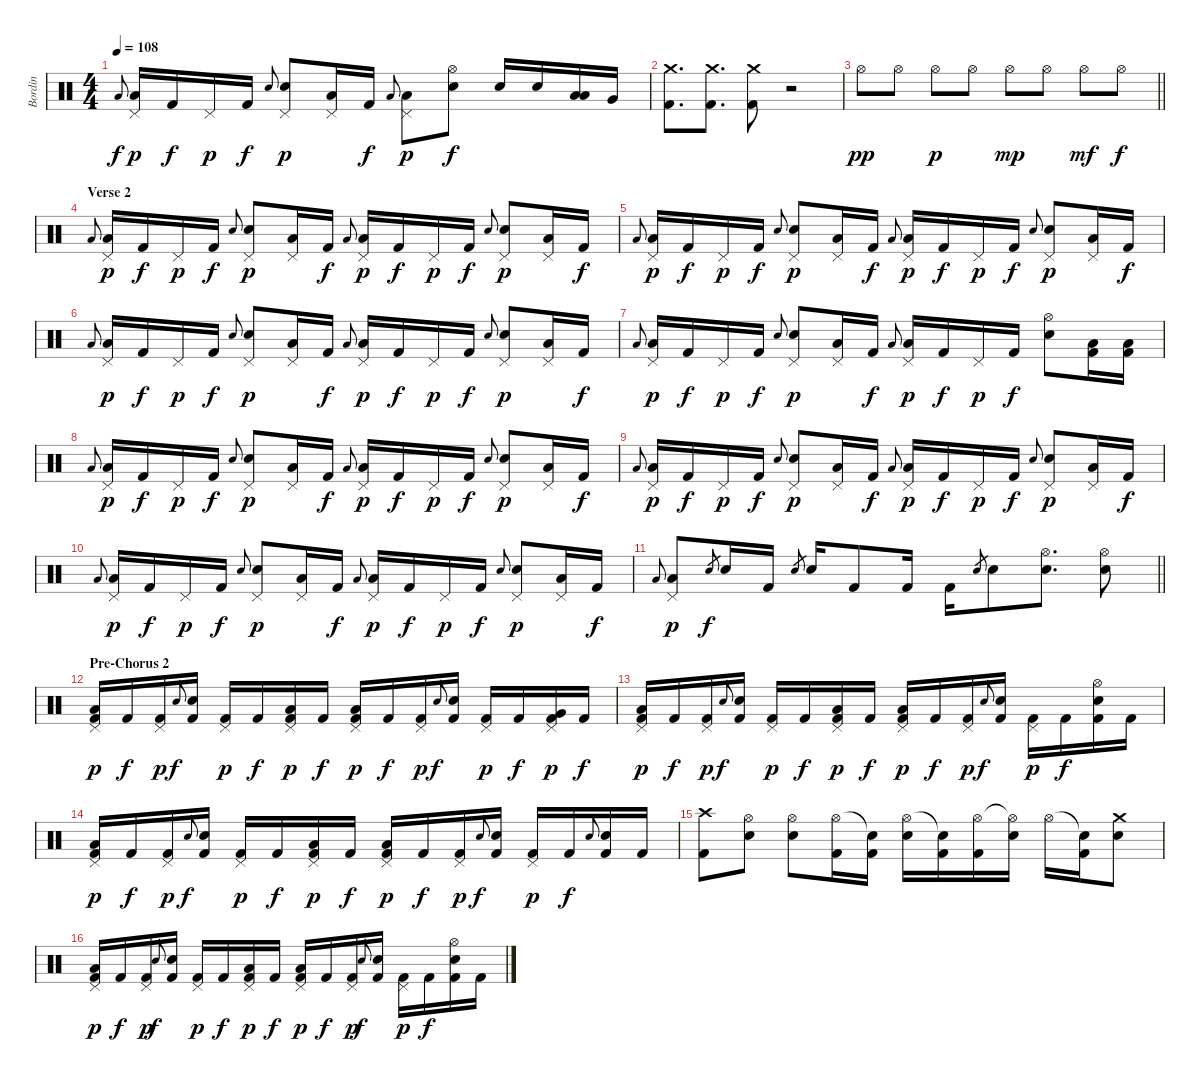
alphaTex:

\track ("Bordin" "Bordin") {instrument percussion}
\staff {score}
\articulation defaults
\ts (4 4)
\tempo 108
\clef neutral
\ks c "Low Tom (hit)".8{gr onbeat dy f}
("Low Tom (hit)" "Pedal Hi-Hat (hit)").16{dy p} "Kick (hit) 2".16{dy f} "Pedal Hi-Hat (hit)".16{dy p} "Kick (hit) 2".16{dy f} "Electric Snare (hit)".8{gr onbeat} ("Pedal Hi-Hat (hit)" "Electric Snare (hit)").8{dy p} ("Low Tom (hit)" "Pedal Hi-Hat (hit)").16 "Kick (hit) 2".16{dy f} "Low Tom (hit)".8{gr onbeat} ("Low Tom (hit)" "Pedal Hi-Hat (hit)").8{dy p} ("Hi-Hat (open)" "Electric Snare (hit)").8{dy f} "Electric Snare (hit)".16 "Electric Snare (hit)".16 ("Low Tom (hit)" "Low Tom (hit)").16 "Very Low Tom (hit)".16 |
("Crash medium (hit)" "Kick (hit) 2").8{d} ("Crash medium (hit)" "Kick (hit) 2").8{d} ("Crash medium (hit)" "Kick (hit) 2").8 r.2 |
\barLineRight lightlight "Hi-Hat (open)".8{dy pp} "Hi-Hat (open)".8 "Hi-Hat (open)".8{dy p} "Hi-Hat (open)".8 "Hi-Hat (open)".8{dy mp} "Hi-Hat (open)".8 "Hi-Hat (open)".8{dy mf} "Hi-Hat (open)".8{dy f}
|
\section ("" "Verse 2")
"Low Tom (hit)".8{gr onbeat} ("Low Tom (hit)" "Pedal Hi-Hat (hit)").16{dy p} "Kick (hit) 2".16{dy f} "Pedal Hi-Hat (hit)".16{dy p} "Kick (hit) 2".16{dy f} "Electric Snare (hit)".8{gr onbeat} ("Pedal Hi-Hat (hit)" "Electric Snare (hit)").8{dy p} ("Low Tom (hit)" "Pedal Hi-Hat (hit)").16 "Kick (hit) 2".16{dy f} "Low Tom (hit)".8{gr onbeat} ("Low Tom (hit)" "Pedal Hi-Hat (hit)").16{dy p} "Kick (hit) 2".16{dy f} "Pedal Hi-Hat (hit)".16{dy p} "Kick (hit) 2".16{dy f} "Electric Snare (hit)".8{gr onbeat} ("Pedal Hi-Hat (hit)" "Electric Snare (hit)").8{dy p} ("Low Tom (hit)" "Pedal Hi-Hat (hit)").16 "Kick (hit) 2".16{dy f} |
"Low Tom (hit)".8{gr onbeat} ("Low Tom (hit)" "Pedal Hi-Hat (hit)").16{dy p} "Kick (hit) 2".16{dy f} "Pedal Hi-Hat (hit)".16{dy p} "Kick (hit) 2".16{dy f} "Electric Snare (hit)".8{gr onbeat} ("Pedal Hi-Hat (hit)" "Electric Snare (hit)").8{dy p} ("Low Tom (hit)" "Pedal Hi-Hat (hit)").16 "Kick (hit) 2".16{dy f} "Low Tom (hit)".8{gr onbeat} ("Low Tom (hit)" "Pedal Hi-Hat (hit)").16{dy p} "Kick (hit) 2".16{dy f} "Pedal Hi-Hat (hit)".16{dy p} "Kick (hit) 2".16{dy f} "Electric Snare (hit)".8{gr onbeat} ("Pedal Hi-Hat (hit)" "Electric Snare (hit)").8{dy p} ("Low Tom (hit)" "Pedal Hi-Hat (hit)").16 "Kick (hit) 2".16{dy f} |
"Low Tom (hit)".8{gr onbeat} ("Low Tom (hit)" "Pedal Hi-Hat (hit)").16{dy p} "Kick (hit) 2".16{dy f} "Pedal Hi-Hat (hit)".16{dy p} "Kick (hit) 2".16{dy f} "Electric Snare (hit)".8{gr onbeat} ("Pedal Hi-Hat (hit)" "Electric Snare (hit)").8{dy p} ("Low Tom (hit)" "Pedal Hi-Hat (hit)").16 "Kick (hit) 2".16{dy f} "Low Tom (hit)".8{gr onbeat} ("Low Tom (hit)" "Pedal Hi-Hat (hit)").16{dy p} "Kick (hit) 2".16{dy f} "Pedal Hi-Hat (hit)".16{dy p} "Kick (hit) 2".16{dy f} "Electric Snare (hit)".8{gr onbeat} ("Pedal Hi-Hat (hit)" "Electric Snare (hit)").8{dy p} ("Low Tom (hit)" "Pedal Hi-Hat (hit)").16 "Kick (hit) 2".16{dy f} |
"Low Tom (hit)".8{gr onbeat} ("Low Tom (hit)" "Pedal Hi-Hat (hit)").16{dy p} "Kick (hit) 2".16{dy f} "Pedal Hi-Hat (hit)".16{dy p} "Kick (hit) 2".16{dy f} "Electric Snare (hit)".8{gr onbeat} ("Pedal Hi-Hat (hit)" "Electric Snare (hit)").8{dy p} ("Low Tom (hit)" "Pedal Hi-Hat (hit)").16 "Kick (hit) 2".16{dy f} "Low Tom (hit)".8{gr onbeat} ("Low Tom (hit)" "Pedal Hi-Hat (hit)").16{dy p} "Kick (hit) 2".16{dy f} "Pedal Hi-Hat (hit)".16{dy p} "Kick (hit) 2".16{dy f} ("Hi-Hat (open)" "Electric Snare (hit)").8 ("Low Tom (hit)" "Kick (hit) 2").16 ("Low Tom (hit)" "Kick (hit) 2").16 |
"Low Tom (hit)".8{gr onbeat} ("Low Tom (hit)" "Pedal Hi-Hat (hit)").16{dy p} "Kick (hit) 2".16{dy f} "Pedal Hi-Hat (hit)".16{dy p} "Kick (hit) 2".16{dy f} "Electric Snare (hit)".8{gr onbeat} ("Pedal Hi-Hat (hit)" "Electric Snare (hit)").8{dy p} ("Low Tom (hit)" "Pedal Hi-Hat (hit)").16 "Kick (hit) 2".16{dy f} "Low Tom (hit)".8{gr onbeat} ("Low Tom (hit)" "Pedal Hi-Hat (hit)").16{dy p} "Kick (hit) 2".16{dy f} "Pedal Hi-Hat (hit)".16{dy p} "Kick (hit) 2".16{dy f} "Electric Snare (hit)".8{gr onbeat} ("Pedal Hi-Hat (hit)" "Electric Snare (hit)").8{dy p} ("Low Tom (hit)" "Pedal Hi-Hat (hit)").16 "Kick (hit) 2".16{dy f} |
"Low Tom (hit)".8{gr onbeat} ("Low Tom (hit)" "Pedal Hi-Hat (hit)").16{dy p} "Kick (hit) 2".16{dy f} "Pedal Hi-Hat (hit)".16{dy p} "Kick (hit) 2".16{dy f} "Electric Snare (hit)".8{gr onbeat} ("Pedal Hi-Hat (hit)" "Electric Snare (hit)").8{dy p} ("Low Tom (hit)" "Pedal Hi-Hat (hit)").16 "Kick (hit) 2".16{dy f} "Low Tom (hit)".8{gr onbeat} ("Low Tom (hit)" "Pedal Hi-Hat (hit)").16{dy p} "Kick (hit) 2".16{dy f} "Pedal Hi-Hat (hit)".16{dy p} "Kick (hit) 2".16{dy f} "Electric Snare (hit)".8{gr onbeat} ("Pedal Hi-Hat (hit)" "Electric Snare (hit)").8{dy p} ("Low Tom (hit)" "Pedal Hi-Hat (hit)").16 "Kick (hit) 2".16{dy f} |
"Low Tom (hit)".8{gr onbeat} ("Low Tom (hit)" "Pedal Hi-Hat (hit)").16{dy p} "Kick (hit) 2".16{dy f} "Pedal Hi-Hat (hit)".16{dy p} "Kick (hit) 2".16{dy f} "Electric Snare (hit)".8{gr onbeat} ("Pedal Hi-Hat (hit)" "Electric Snare (hit)").8{dy p} ("Low Tom (hit)" "Pedal Hi-Hat (hit)").16 "Kick (hit) 2".16{dy f} "Low Tom (hit)".8{gr onbeat} ("Low Tom (hit)" "Pedal Hi-Hat (hit)").16{dy p} "Kick (hit) 2".16{dy f} "Pedal Hi-Hat (hit)".16{dy p} "Kick (hit) 2".16{dy f} "Electric Snare (hit)".8{gr onbeat} ("Pedal Hi-Hat (hit)" "Electric Snare (hit)").8{dy p} ("Low Tom (hit)" "Pedal Hi-Hat (hit)").16 "Kick (hit) 2".16{dy f} |
\barLineRight lightlight "Low Tom (hit)".8{gr onbeat}
("Low Tom (hit)" "Pedal Hi-Hat (hit)").8{dy p} "Electric Snare (hit)".8{gr dy f} "Electric Snare (hit)".16 "Kick (hit) 2".16 "Electric Snare (hit)".8{gr} "Electric Snare (hit)".16 "Kick (hit) 2".8 "Kick (hit) 2".16 "Kick (hit) 2".16 "Electric Snare (hit)".8{gr} "Electric Snare (hit)".8 ("Hi-Hat (open)" "Electric Snare (hit)").8{d} ("Hi-Hat (open)" "Electric Snare (hit)").8 |
\section ("" "Pre-Chorus 2")
("Low Tom (hit)" "Pedal Hi-Hat (hit)" "Kick (hit) 2").16{dy p} "Kick (hit) 2".16{dy f} ("Pedal Hi-Hat (hit)" "Kick (hit) 2").16{dy p} "Electric Snare (hit)".8{gr onbeat dy f} ("Electric Snare (hit)" "Kick (hit) 2").16 ("Pedal Hi-Hat (hit)" "Kick (hit) 2").16{dy p} "Kick (hit) 2".16{dy f} ("Low Tom (hit)" "Pedal Hi-Hat (hit)" "Kick (hit) 2").16{dy p} "Kick (hit) 2".16{dy f} ("Low Tom (hit)" "Pedal Hi-Hat (hit)" "Kick (hit) 2").16{dy p} "Kick (hit) 2".16{dy f} ("Pedal Hi-Hat (hit)" "Kick (hit) 2").16{dy p} "Electric Snare (hit)".8{gr onbeat dy f} ("Electric Snare (hit)" "Kick (hit) 2").16 ("Pedal Hi-Hat (hit)" "Kick (hit) 2").16{dy p} "Kick (hit) 2".16{dy f} ("Very Low Tom (hit)" "Pedal Hi-Hat (hit)" "Kick (hit) 2").16{dy p} "Kick (hit) 2".16{dy f} |
("Low Tom (hit)" "Pedal Hi-Hat (hit)" "Kick (hit) 2").16{dy p} "Kick (hit) 2".16{dy f} ("Pedal Hi-Hat (hit)" "Kick (hit) 2").16{dy p} "Electric Snare (hit)".8{gr onbeat dy f} ("Electric Snare (hit)" "Kick (hit) 2").16 ("Pedal Hi-Hat (hit)" "Kick (hit) 2").16{dy p} "Kick (hit) 2".16{dy f} ("Low Tom (hit)" "Pedal Hi-Hat (hit)" "Kick (hit) 2").16{dy p} "Kick (hit) 2".16{dy f} ("Low Tom (hit)" "Pedal Hi-Hat (hit)" "Kick (hit) 2").16{dy p} "Kick (hit) 2".16{dy f} ("Pedal Hi-Hat (hit)" "Kick (hit) 2").16{dy p} "Electric Snare (hit)".8{gr onbeat dy f} ("Electric Snare (hit)" "Kick (hit) 2").16 ("Pedal Hi-Hat (hit)" "Kick (hit) 2").16{dy p} "Kick (hit) 2".16{dy f} ("Hi-Hat (open)" "Electric Snare (hit)" "Kick (hit) 2").16 "Kick (hit) 2".16 |
("Low Tom (hit)" "Pedal Hi-Hat (hit)" "Kick (hit) 2").16{dy p} "Kick (hit) 2".16{dy f} ("Pedal Hi-Hat (hit)" "Kick (hit) 2").16{dy p} "Electric Snare (hit)".8{gr onbeat dy f} ("Electric Snare (hit)" "Kick (hit) 2").16 ("Pedal Hi-Hat (hit)" "Kick (hit) 2").16{dy p} "Kick (hit) 2".16{dy f} ("Low Tom (hit)" "Pedal Hi-Hat (hit)" "Kick (hit) 2").16{dy p} "Kick (hit) 2".16{dy f} ("Low Tom (hit)" "Pedal Hi-Hat (hit)" "Kick (hit) 2").16{dy p} "Kick (hit) 2".16{dy f} ("Pedal Hi-Hat (hit)" "Kick (hit) 2").16{dy p} "Electric Snare (hit)".8{gr onbeat dy f} ("Electric Snare (hit)" "Kick (hit) 2").16 ("Pedal Hi-Hat (hit)" "Kick (hit) 2").16{dy p} "Kick (hit) 2".16{dy f} "Electric Snare (hit)".8{gr onbeat} ("Electric Snare (hit)" "Kick (hit) 2").16 "Kick (hit) 2".16 |
("Crash high (hit)" "Kick (hit) 2").8 ("Hi-Hat (open)" "Electric Snare (hit)").8 ("Hi-Hat (open)" "Electric Snare (hit)").8 ("Hi-Hat (open)" "Kick (hit) 2").16 ("Snare (hit)"{t} "Kick (hit) 2").16 ("Hi-Hat (open)" "Electric Snare (hit)").16 ("Snare (hit)"{t} "Kick (hit) 2").16 ("Hi-Hat (open)" "Kick (hit) 2").16 ("Hi-Hat (open)"{t} "Electric Snare (hit)").16 "Hi-Hat (open)".16 ("Snare (hit)"{t} "Kick (hit) 2").16 ("Crash medium (hit)" "Electric Snare (hit)").8 |
("Low Tom (hit)" "Pedal Hi-Hat (hit)" "Kick (hit) 2").16{dy p} "Kick (hit) 2".16{dy f} ("Pedal Hi-Hat (hit)" "Kick (hit) 2").16{dy p} "Electric Snare (hit)".8{gr onbeat dy f} ("Electric Snare (hit)" "Kick (hit) 2").16 ("Pedal Hi-Hat (hit)" "Kick (hit) 2").16{dy p} "Kick (hit) 2".16{dy f} ("Low Tom (hit)" "Pedal Hi-Hat (hit)" "Kick (hit) 2").16{dy p} "Kick (hit) 2".16{dy f} ("Low Tom (hit)" "Pedal Hi-Hat (hit)" "Kick (hit) 2").16{dy p} "Kick (hit) 2".16{dy f} ("Pedal Hi-Hat (hit)" "Kick (hit) 2").16{dy p} "Electric Snare (hit)".8{gr onbeat dy f} ("Electric Snare (hit)" "Kick (hit) 2").16 ("Pedal Hi-Hat (hit)" "Kick (hit) 2").16{dy p} "Kick (hit) 2".16{dy f} ("Hi-Hat (open)" "Electric Snare (hit)" "Kick (hit) 2").16 "Kick (hit) 2".16
